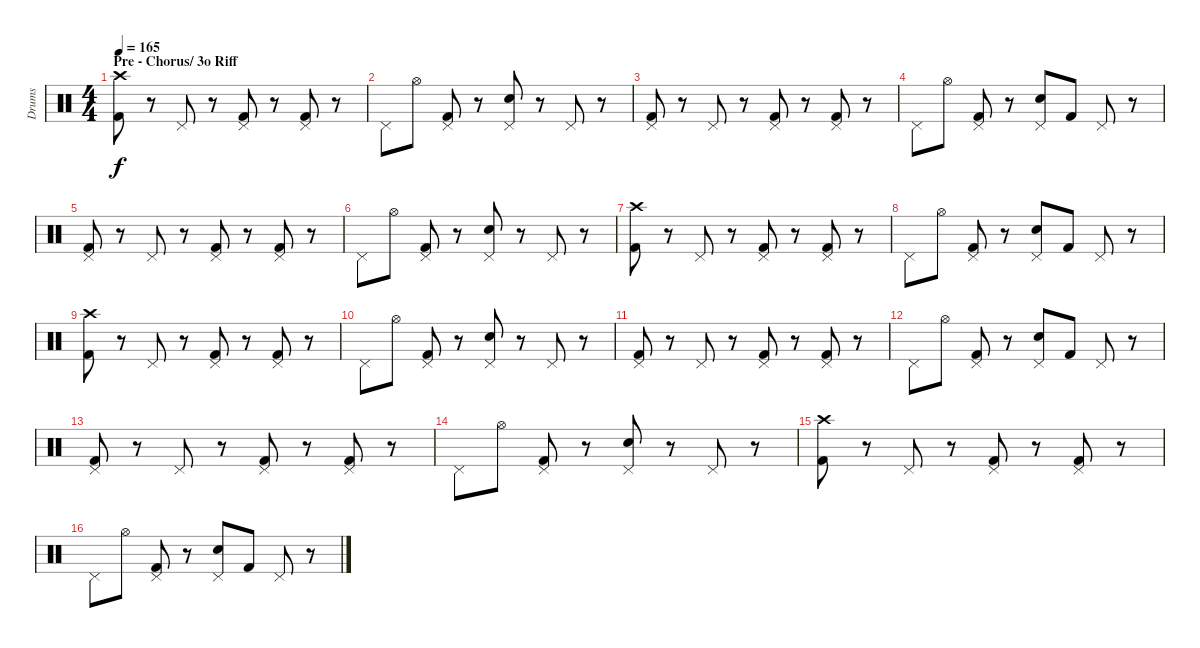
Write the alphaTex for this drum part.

\track ("Drums" "Drums") {instrument percussion}
\staff {score}
\articulation defaults
\ts (4 4)
\section ("" "Pre - Chorus/ 3o Riff")
\tempo 165
\clef neutral
\ks c
("Crash high (hit)" "Kick (hit) 2").8{dy f} r.8 "Pedal Hi-Hat (hit)".8 r.8 ("Pedal Hi-Hat (hit)" "Kick (hit) 2").8 r.8 ("Pedal Hi-Hat (hit)" "Kick (hit) 2").8 r.8 |
"Pedal Hi-Hat (hit)".8 "Hi-Hat (open)".8 ("Pedal Hi-Hat (hit)" "Kick (hit) 2").8 r.8 ("Pedal Hi-Hat (hit)" "Electric Snare (hit)").8 r.8 "Pedal Hi-Hat (hit)".8 r.8 |
("Pedal Hi-Hat (hit)" "Kick (hit) 2").8 r.8 "Pedal Hi-Hat (hit)".8 r.8 ("Pedal Hi-Hat (hit)" "Kick (hit) 2").8 r.8 ("Pedal Hi-Hat (hit)" "Kick (hit) 2").8 r.8 |
"Pedal Hi-Hat (hit)".8 "Hi-Hat (open)".8 ("Pedal Hi-Hat (hit)" "Kick (hit) 2").8 r.8 ("Pedal Hi-Hat (hit)" "Electric Snare (hit)").8 "Kick (hit) 2".8 "Pedal Hi-Hat (hit)".8 r.8 |
("Pedal Hi-Hat (hit)" "Kick (hit) 2").8 r.8 "Pedal Hi-Hat (hit)".8 r.8 ("Pedal Hi-Hat (hit)" "Kick (hit) 2").8 r.8 ("Pedal Hi-Hat (hit)" "Kick (hit) 2").8 r.8 |
"Pedal Hi-Hat (hit)".8 "Hi-Hat (open)".8 ("Pedal Hi-Hat (hit)" "Kick (hit) 2").8 r.8 ("Pedal Hi-Hat (hit)" "Electric Snare (hit)").8 r.8 "Pedal Hi-Hat (hit)".8 r.8 |
("Crash high (hit)" "Kick (hit) 2").8 r.8 "Pedal Hi-Hat (hit)".8 r.8 ("Pedal Hi-Hat (hit)" "Kick (hit) 2").8 r.8 ("Pedal Hi-Hat (hit)" "Kick (hit) 2").8 r.8 |
"Pedal Hi-Hat (hit)".8 "Hi-Hat (open)".8 ("Pedal Hi-Hat (hit)" "Kick (hit) 2").8 r.8 ("Pedal Hi-Hat (hit)" "Electric Snare (hit)").8 "Kick (hit) 2".8 "Pedal Hi-Hat (hit)".8 r.8 |
("Crash high (hit)" "Kick (hit) 2").8 r.8 "Pedal Hi-Hat (hit)".8 r.8 ("Pedal Hi-Hat (hit)" "Kick (hit) 2").8 r.8 ("Pedal Hi-Hat (hit)" "Kick (hit) 2").8 r.8 |
"Pedal Hi-Hat (hit)".8 "Hi-Hat (open)".8 ("Pedal Hi-Hat (hit)" "Kick (hit) 2").8 r.8 ("Pedal Hi-Hat (hit)" "Electric Snare (hit)").8 r.8 "Pedal Hi-Hat (hit)".8 r.8 |
("Pedal Hi-Hat (hit)" "Kick (hit) 2").8 r.8 "Pedal Hi-Hat (hit)".8 r.8 ("Pedal Hi-Hat (hit)" "Kick (hit) 2").8 r.8 ("Pedal Hi-Hat (hit)" "Kick (hit) 2").8 r.8 |
"Pedal Hi-Hat (hit)".8 "Hi-Hat (open)".8 ("Pedal Hi-Hat (hit)" "Kick (hit) 2").8 r.8 ("Pedal Hi-Hat (hit)" "Electric Snare (hit)").8 "Kick (hit) 2".8 "Pedal Hi-Hat (hit)".8 r.8 |
("Pedal Hi-Hat (hit)" "Kick (hit) 2").8 r.8 "Pedal Hi-Hat (hit)".8 r.8 ("Pedal Hi-Hat (hit)" "Kick (hit) 2").8 r.8 ("Pedal Hi-Hat (hit)" "Kick (hit) 2").8 r.8 |
"Pedal Hi-Hat (hit)".8 "Hi-Hat (open)".8 ("Pedal Hi-Hat (hit)" "Kick (hit) 2").8 r.8 ("Pedal Hi-Hat (hit)" "Electric Snare (hit)").8 r.8 "Pedal Hi-Hat (hit)".8 r.8 |
("Crash high (hit)" "Kick (hit) 2").8 r.8 "Pedal Hi-Hat (hit)".8 r.8 ("Pedal Hi-Hat (hit)" "Kick (hit) 2").8 r.8 ("Pedal Hi-Hat (hit)" "Kick (hit) 2").8 r.8 |
"Pedal Hi-Hat (hit)".8 "Hi-Hat (open)".8 ("Pedal Hi-Hat (hit)" "Kick (hit) 2").8 r.8 ("Pedal Hi-Hat (hit)" "Electric Snare (hit)").8 "Kick (hit) 2".8 "Pedal Hi-Hat (hit)".8 r.8
